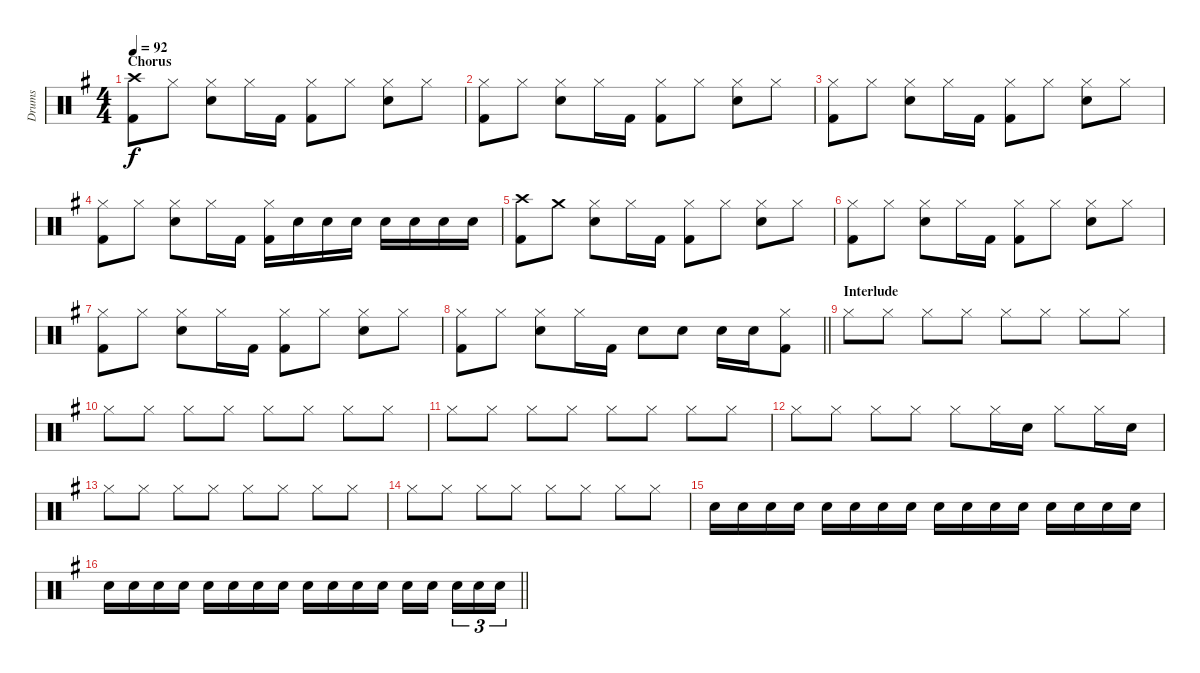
\track ("Drums" "Drums") {instrument percussion}
\staff {score}
\articulation defaults
\ts (4 4)
\section ("" "Chorus")
\tempo 92
\clef neutral
\ks eminor
("Crash high (hit)" "Kick (hit) 2").8{dy f} "Hi-Hat (closed)".8 ("Hi-Hat (closed)" "Electric Snare (hit)").8 "Hi-Hat (closed)".16 "Kick (hit) 2".16 ("Hi-Hat (closed)" "Kick (hit) 2").8 "Hi-Hat (closed)".8 ("Hi-Hat (closed)" "Electric Snare (hit)").8 "Hi-Hat (closed)".8 |
("Hi-Hat (closed)" "Kick (hit) 2").8 "Hi-Hat (closed)".8 ("Hi-Hat (closed)" "Electric Snare (hit)").8 "Hi-Hat (closed)".16 "Kick (hit) 2".16 ("Hi-Hat (closed)" "Kick (hit) 2").8 "Hi-Hat (closed)".8 ("Hi-Hat (closed)" "Electric Snare (hit)").8 "Hi-Hat (closed)".8 |
("Hi-Hat (closed)" "Kick (hit) 2").8 "Hi-Hat (closed)".8 ("Hi-Hat (closed)" "Electric Snare (hit)").8 "Hi-Hat (closed)".16 "Kick (hit) 2".16 ("Hi-Hat (closed)" "Kick (hit) 2").8 "Hi-Hat (closed)".8 ("Hi-Hat (closed)" "Electric Snare (hit)").8 "Hi-Hat (closed)".8 |
("Hi-Hat (closed)" "Kick (hit) 2").8 "Hi-Hat (closed)".8 ("Hi-Hat (closed)" "Electric Snare (hit)").8 "Hi-Hat (closed)".16 "Kick (hit) 2".16 ("Hi-Hat (closed)" "Kick (hit) 2").16 "Electric Snare (hit)".16 "Electric Snare (hit)".16 "Electric Snare (hit)".16 "Electric Snare (hit)".16 "Electric Snare (hit)".16 "Electric Snare (hit)".16 "Electric Snare (hit)".16 |
("Crash high (hit)" "Kick (hit) 2").8 "Crash medium (hit)".8 ("Hi-Hat (closed)" "Electric Snare (hit)").8 "Hi-Hat (closed)".16 "Kick (hit) 2".16 ("Hi-Hat (closed)" "Kick (hit) 2").8 "Hi-Hat (closed)".8 ("Hi-Hat (closed)" "Electric Snare (hit)").8 "Hi-Hat (closed)".8 |
("Hi-Hat (closed)" "Kick (hit) 2").8 "Hi-Hat (closed)".8 ("Hi-Hat (closed)" "Electric Snare (hit)").8 "Hi-Hat (closed)".16 "Kick (hit) 2".16 ("Hi-Hat (closed)" "Kick (hit) 2").8 "Hi-Hat (closed)".8 ("Hi-Hat (closed)" "Electric Snare (hit)").8 "Hi-Hat (closed)".8 |
("Hi-Hat (closed)" "Kick (hit) 2").8 "Hi-Hat (closed)".8 ("Hi-Hat (closed)" "Electric Snare (hit)").8 "Hi-Hat (closed)".16 "Kick (hit) 2".16 ("Hi-Hat (closed)" "Kick (hit) 2").8 "Hi-Hat (closed)".8 ("Hi-Hat (closed)" "Electric Snare (hit)").8 "Hi-Hat (closed)".8 |
\barLineRight lightlight
("Hi-Hat (closed)" "Kick (hit) 2").8 "Hi-Hat (closed)".8 ("Hi-Hat (closed)" "Electric Snare (hit)").8 "Hi-Hat (closed)".16 "Kick (hit) 2".16 "Electric Snare (hit)".8 "Electric Snare (hit)".8 "Electric Snare (hit)".16 "Electric Snare (hit)".16 ("Hi-Hat (closed)" "Kick (hit) 2").8 |
\section ("" "Interlude")
"Hi-Hat (closed)".8 "Hi-Hat (closed)".8 "Hi-Hat (closed)".8 "Hi-Hat (closed)".8 "Hi-Hat (closed)".8 "Hi-Hat (closed)".8 "Hi-Hat (closed)".8 "Hi-Hat (closed)".8 |
"Hi-Hat (closed)".8 "Hi-Hat (closed)".8 "Hi-Hat (closed)".8 "Hi-Hat (closed)".8 "Hi-Hat (closed)".8 "Hi-Hat (closed)".8 "Hi-Hat (closed)".8 "Hi-Hat (closed)".8 |
"Hi-Hat (closed)".8 "Hi-Hat (closed)".8 "Hi-Hat (closed)".8 "Hi-Hat (closed)".8 "Hi-Hat (closed)".8 "Hi-Hat (closed)".8 "Hi-Hat (closed)".8 "Hi-Hat (closed)".8 |
"Hi-Hat (closed)".8 "Hi-Hat (closed)".8 "Hi-Hat (closed)".8 "Hi-Hat (closed)".8 "Hi-Hat (closed)".8 "Hi-Hat (closed)".16 "Electric Snare (hit)".16 "Hi-Hat (closed)".8 "Hi-Hat (closed)".16 "Electric Snare (hit)".16 |
"Hi-Hat (closed)".8 "Hi-Hat (closed)".8 "Hi-Hat (closed)".8 "Hi-Hat (closed)".8 "Hi-Hat (closed)".8 "Hi-Hat (closed)".8 "Hi-Hat (closed)".8 "Hi-Hat (closed)".8 |
"Hi-Hat (closed)".8 "Hi-Hat (closed)".8 "Hi-Hat (closed)".8 "Hi-Hat (closed)".8 "Hi-Hat (closed)".8 "Hi-Hat (closed)".8 "Hi-Hat (closed)".8 "Hi-Hat (closed)".8 |
"Electric Snare (hit)".16 "Electric Snare (hit)".16 "Electric Snare (hit)".16 "Electric Snare (hit)".16 "Electric Snare (hit)".16 "Electric Snare (hit)".16 "Electric Snare (hit)".16 "Electric Snare (hit)".16 "Electric Snare (hit)".16 "Electric Snare (hit)".16 "Electric Snare (hit)".16 "Electric Snare (hit)".16 "Electric Snare (hit)".16 "Electric Snare (hit)".16 "Electric Snare (hit)".16 "Electric Snare (hit)".16 |
\barLineRight lightlight "Electric Snare (hit)".16 "Electric Snare (hit)".16 "Electric Snare (hit)".16 "Electric Snare (hit)".16 "Electric Snare (hit)".16 "Electric Snare (hit)".16 "Electric Snare (hit)".16 "Electric Snare (hit)".16 "Electric Snare (hit)".16 "Electric Snare (hit)".16 "Electric Snare (hit)".16 "Electric Snare (hit)".16 "Electric Snare (hit)".16 "Electric Snare (hit)".16{beam splitsecondary} "Electric Snare (hit)".16{tu (3 2)} "Electric Snare (hit)".16{tu (3 2)} "Electric Snare (hit)".16{tu (3 2)}
